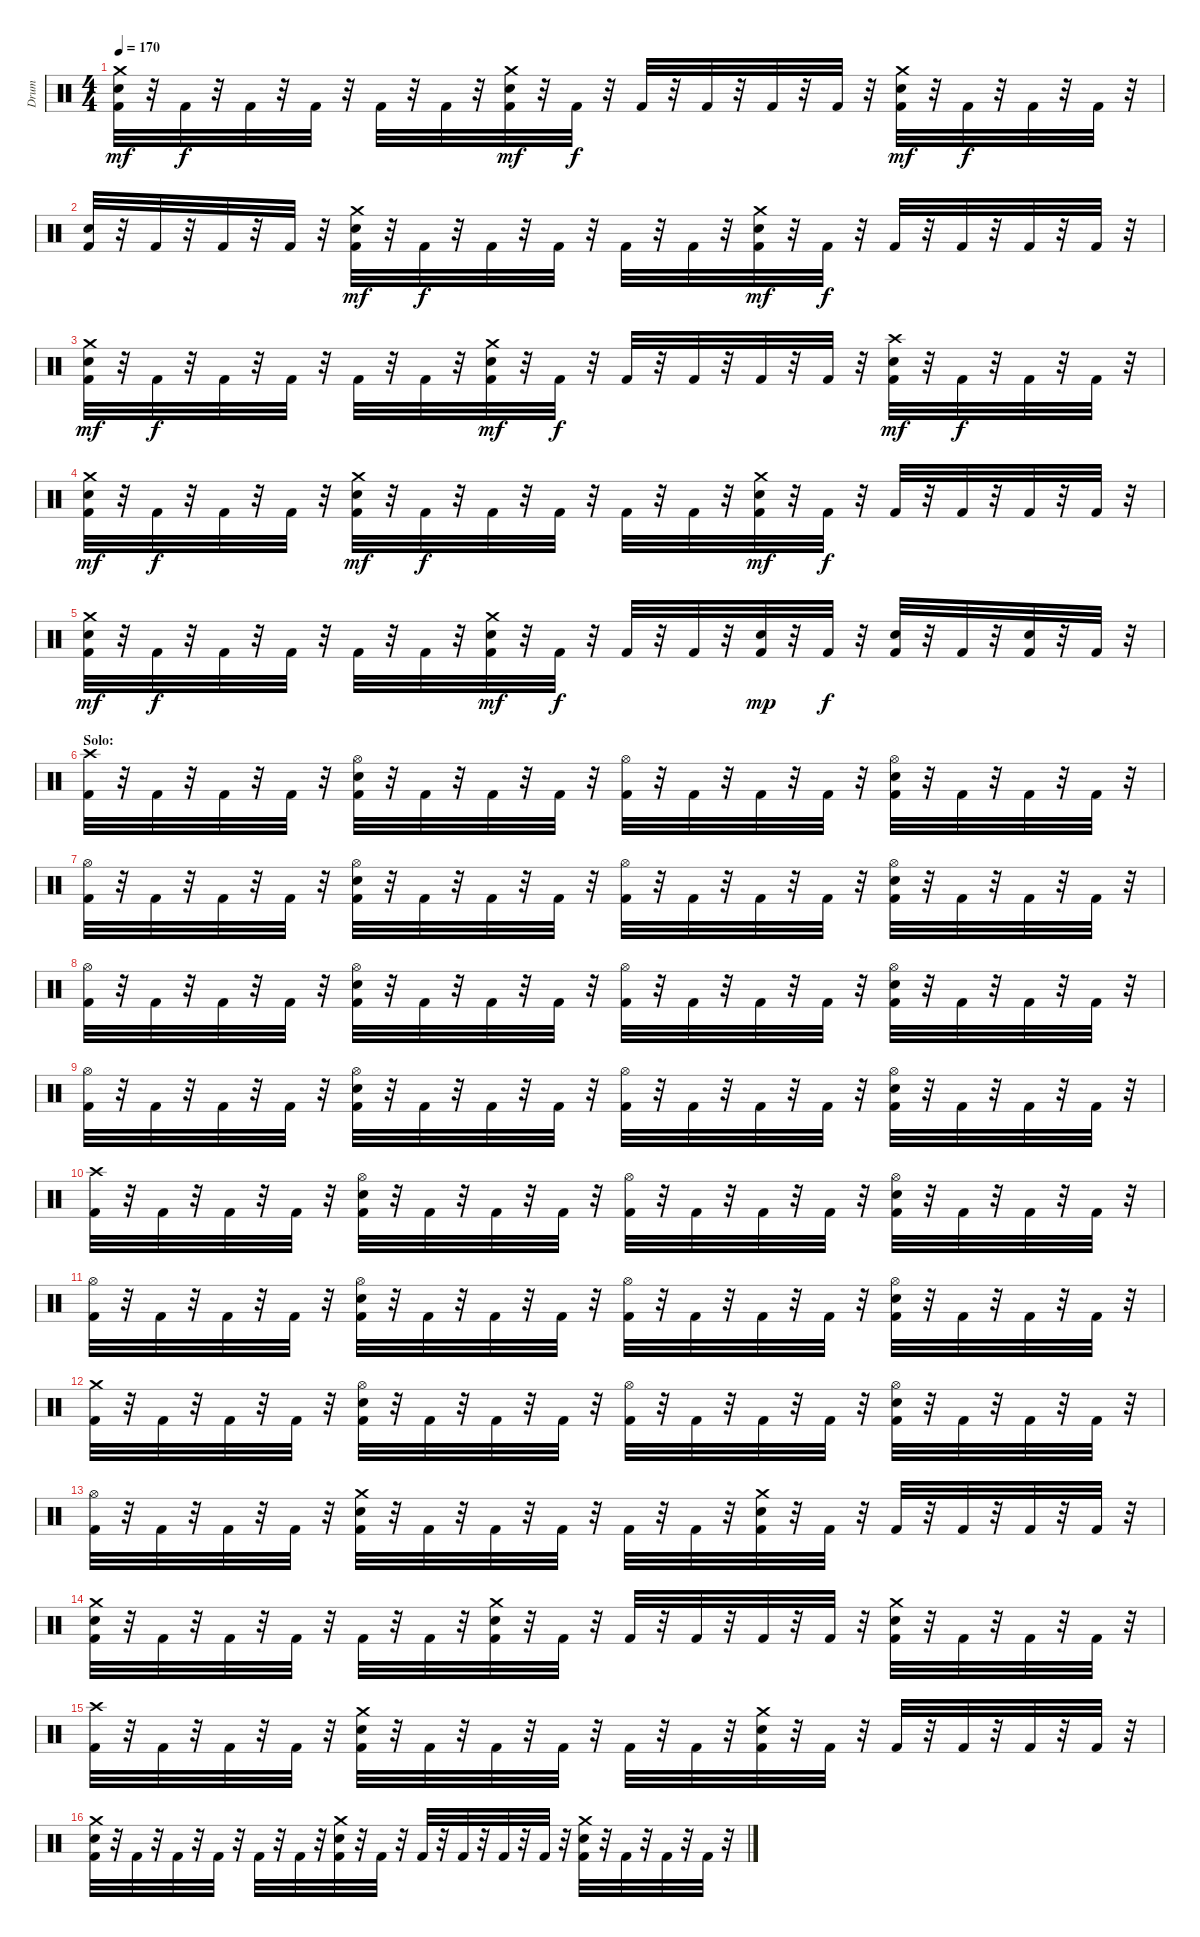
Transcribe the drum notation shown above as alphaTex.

\track ("Drum" "Drum") {instrument percussion}
\staff {score}
\articulation defaults
\ts (4 4)
\tempo 170
\clef neutral
\ks c
("Crash medium (hit)" "Snare (hit) 2" "Kick (hit) 2").32{dy mf} r.32 "Kick (hit) 2".32{dy f} r.32 "Kick (hit) 2".32 r.32 "Kick (hit) 2".32 r.32 "Kick (hit) 2".32 r.32 "Kick (hit) 2".32 r.32 ("Crash medium (hit)" "Snare (hit) 2" "Kick (hit) 2").32{dy mf} r.32 "Kick (hit) 2".32{dy f} r.32 "Kick (hit) 2".32 r.32 "Kick (hit) 2".32 r.32 "Kick (hit) 2".32 r.32 "Kick (hit) 2".32 r.32 ("Crash medium (hit)" "Snare (hit) 2" "Kick (hit) 2").32{dy mf} r.32 "Kick (hit) 2".32{dy f} r.32 "Kick (hit) 2".32 r.32 "Kick (hit) 2".32 r.32 |
("Snare (hit) 2" "Kick (hit) 2").32 r.32 "Kick (hit) 2".32 r.32 "Kick (hit) 2".32 r.32 "Kick (hit) 2".32 r.32 ("Snare (hit) 2" "Crash medium (hit)" "Kick (hit) 2").32{dy mf} r.32 "Kick (hit) 2".32{dy f} r.32 "Kick (hit) 2".32 r.32 "Kick (hit) 2".32 r.32 "Kick (hit) 2".32 r.32 "Kick (hit) 2".32 r.32 ("Crash medium (hit)" "Snare (hit) 2" "Kick (hit) 2").32{dy mf} r.32 "Kick (hit) 2".32{dy f} r.32 "Kick (hit) 2".32 r.32 "Kick (hit) 2".32 r.32 "Kick (hit) 2".32 r.32 "Kick (hit) 2".32 r.32 |
("Snare (hit) 2" "Crash medium (hit)" "Kick (hit) 2").32{dy mf} r.32 "Kick (hit) 2".32{dy f} r.32 "Kick (hit) 2".32 r.32 "Kick (hit) 2".32 r.32 "Kick (hit) 2".32 r.32 "Kick (hit) 2".32 r.32 ("Snare (hit) 2" "Crash medium (hit)" "Kick (hit) 2").32{dy mf} r.32 "Kick (hit) 2".32{dy f} r.32 "Kick (hit) 2".32 r.32 "Kick (hit) 2".32 r.32 "Kick (hit) 2".32 r.32 "Kick (hit) 2".32 r.32 ("Crash high (hit)" "Snare (hit) 2" "Kick (hit) 2").32{dy mf} r.32 "Kick (hit) 2".32{dy f} r.32 "Kick (hit) 2".32 r.32 "Kick (hit) 2".32 r.32 |
("Crash medium (hit)" "Snare (hit) 2" "Kick (hit) 2").32{dy mf} r.32 "Kick (hit) 2".32{dy f} r.32 "Kick (hit) 2".32 r.32 "Kick (hit) 2".32 r.32 ("Snare (hit) 2" "Crash medium (hit)" "Kick (hit) 2").32{dy mf} r.32 "Kick (hit) 2".32{dy f} r.32 "Kick (hit) 2".32 r.32 "Kick (hit) 2".32 r.32 "Kick (hit) 2".32 r.32 "Kick (hit) 2".32 r.32 ("Crash medium (hit)" "Snare (hit) 2" "Kick (hit) 2").32{dy mf} r.32 "Kick (hit) 2".32{dy f} r.32 "Kick (hit) 2".32 r.32 "Kick (hit) 2".32 r.32 "Kick (hit) 2".32 r.32 "Kick (hit) 2".32 r.32 |
("Snare (hit) 2" "Crash medium (hit)" "Kick (hit) 2").32{dy mf} r.32 "Kick (hit) 2".32{dy f} r.32 "Kick (hit) 2".32 r.32 "Kick (hit) 2".32 r.32 "Kick (hit) 2".32 r.32 "Kick (hit) 2".32 r.32 ("Snare (hit) 2" "Crash medium (hit)" "Kick (hit) 2").32{dy mf} r.32 "Kick (hit) 2".32{dy f} r.32 "Kick (hit) 2".32 r.32 "Kick (hit) 2".32 r.32 ("Snare (hit) 2" "Kick (hit) 2").32{dy mp} r.32 "Kick (hit) 2".32{dy f} r.32 ("Snare (hit) 2" "Kick (hit) 2").32 r.32 "Kick (hit) 2".32 r.32 ("Snare (hit) 2" "Kick (hit) 2").32 r.32 "Kick (hit) 2".32 r.32 |
\section ("" "Solo:")
("Crash high (hit)" "Kick (hit) 2").32 r.32 "Kick (hit) 2".32 r.32 "Kick (hit) 2".32 r.32 "Kick (hit) 2".32 r.32 ("Hi-Hat (open)" "Snare (hit) 2" "Kick (hit) 2").32 r.32 "Kick (hit) 2".32 r.32 "Kick (hit) 2".32 r.32 "Kick (hit) 2".32 r.32 ("Hi-Hat (open)" "Kick (hit) 2").32 r.32 "Kick (hit) 2".32 r.32 "Kick (hit) 2".32 r.32 "Kick (hit) 2".32 r.32 ("Hi-Hat (open)" "Snare (hit) 2" "Kick (hit) 2").32 r.32 "Kick (hit) 2".32 r.32 "Kick (hit) 2".32 r.32 "Kick (hit) 2".32 r.32 |
("Hi-Hat (open)" "Kick (hit) 2").32 r.32 "Kick (hit) 2".32 r.32 "Kick (hit) 2".32 r.32 "Kick (hit) 2".32 r.32 ("Snare (hit) 2" "Hi-Hat (open)" "Kick (hit) 2").32 r.32 "Kick (hit) 2".32 r.32 "Kick (hit) 2".32 r.32 "Kick (hit) 2".32 r.32 ("Hi-Hat (open)" "Kick (hit) 2").32 r.32 "Kick (hit) 2".32 r.32 "Kick (hit) 2".32 r.32 "Kick (hit) 2".32 r.32 ("Snare (hit) 2" "Hi-Hat (open)" "Kick (hit) 2").32 r.32 "Kick (hit) 2".32 r.32 "Kick (hit) 2".32 r.32 "Kick (hit) 2".32 r.32 |
("Hi-Hat (open)" "Kick (hit) 2").32 r.32 "Kick (hit) 2".32 r.32 "Kick (hit) 2".32 r.32 "Kick (hit) 2".32 r.32 ("Snare (hit) 2" "Hi-Hat (open)" "Kick (hit) 2").32 r.32 "Kick (hit) 2".32 r.32 "Kick (hit) 2".32 r.32 "Kick (hit) 2".32 r.32 ("Hi-Hat (open)" "Kick (hit) 2").32 r.32 "Kick (hit) 2".32 r.32 "Kick (hit) 2".32 r.32 "Kick (hit) 2".32 r.32 ("Snare (hit) 2" "Hi-Hat (open)" "Kick (hit) 2").32 r.32 "Kick (hit) 2".32 r.32 "Kick (hit) 2".32 r.32 "Kick (hit) 2".32 r.32 |
("Hi-Hat (open)" "Kick (hit) 2").32 r.32 "Kick (hit) 2".32 r.32 "Kick (hit) 2".32 r.32 "Kick (hit) 2".32 r.32 ("Snare (hit) 2" "Hi-Hat (open)" "Kick (hit) 2").32 r.32 "Kick (hit) 2".32 r.32 "Kick (hit) 2".32 r.32 "Kick (hit) 2".32 r.32 ("Hi-Hat (open)" "Kick (hit) 2").32 r.32 "Kick (hit) 2".32 r.32 "Kick (hit) 2".32 r.32 "Kick (hit) 2".32 r.32 ("Snare (hit) 2" "Hi-Hat (open)" "Kick (hit) 2").32 r.32 "Kick (hit) 2".32 r.32 "Kick (hit) 2".32 r.32 "Kick (hit) 2".32 r.32 |
("Crash high (hit)" "Kick (hit) 2").32 r.32 "Kick (hit) 2".32 r.32 "Kick (hit) 2".32 r.32 "Kick (hit) 2".32 r.32 ("Snare (hit) 2" "Hi-Hat (open)" "Kick (hit) 2").32 r.32 "Kick (hit) 2".32 r.32 "Kick (hit) 2".32 r.32 "Kick (hit) 2".32 r.32 ("Hi-Hat (open)" "Kick (hit) 2").32 r.32 "Kick (hit) 2".32 r.32 "Kick (hit) 2".32 r.32 "Kick (hit) 2".32 r.32 ("Snare (hit) 2" "Hi-Hat (open)" "Kick (hit) 2").32 r.32 "Kick (hit) 2".32 r.32 "Kick (hit) 2".32 r.32 "Kick (hit) 2".32 r.32 |
("Hi-Hat (open)" "Kick (hit) 2").32 r.32 "Kick (hit) 2".32 r.32 "Kick (hit) 2".32 r.32 "Kick (hit) 2".32 r.32 ("Hi-Hat (open)" "Snare (hit) 2" "Kick (hit) 2").32 r.32 "Kick (hit) 2".32 r.32 "Kick (hit) 2".32 r.32 "Kick (hit) 2".32 r.32 ("Hi-Hat (open)" "Kick (hit) 2").32 r.32 "Kick (hit) 2".32 r.32 "Kick (hit) 2".32 r.32 "Kick (hit) 2".32 r.32 ("Hi-Hat (open)" "Snare (hit) 2" "Kick (hit) 2").32 r.32 "Kick (hit) 2".32 r.32 "Kick (hit) 2".32 r.32 "Kick (hit) 2".32 r.32 |
("Crash medium (hit)" "Kick (hit) 2").32 r.32 "Kick (hit) 2".32 r.32 "Kick (hit) 2".32 r.32 "Kick (hit) 2".32 r.32 ("Hi-Hat (open)" "Snare (hit) 2" "Kick (hit) 2").32 r.32 "Kick (hit) 2".32 r.32 "Kick (hit) 2".32 r.32 "Kick (hit) 2".32 r.32 ("Hi-Hat (open)" "Kick (hit) 2").32 r.32 "Kick (hit) 2".32 r.32 "Kick (hit) 2".32 r.32 "Kick (hit) 2".32 r.32 ("Hi-Hat (open)" "Snare (hit) 2" "Kick (hit) 2").32 r.32 "Kick (hit) 2".32 r.32 "Kick (hit) 2".32 r.32 "Kick (hit) 2".32 r.32 |
("Hi-Hat (open)" "Kick (hit) 2").32 r.32 "Kick (hit) 2".32 r.32 "Kick (hit) 2".32 r.32 "Kick (hit) 2".32 r.32 ("Crash medium (hit)" "Snare (hit) 2" "Kick (hit) 2").32 r.32 "Kick (hit) 2".32 r.32 "Kick (hit) 2".32 r.32 "Kick (hit) 2".32 r.32 "Kick (hit) 2".32 r.32 "Kick (hit) 2".32 r.32 ("Crash medium (hit)" "Snare (hit) 2" "Kick (hit) 2").32 r.32 "Kick (hit) 2".32 r.32 "Kick (hit) 2".32 r.32 "Kick (hit) 2".32 r.32 "Kick (hit) 2".32 r.32 "Kick (hit) 2".32 r.32 |
("Crash medium (hit)" "Snare (hit) 2" "Kick (hit) 2").32 r.32 "Kick (hit) 2".32 r.32 "Kick (hit) 2".32 r.32 "Kick (hit) 2".32 r.32 "Kick (hit) 2".32 r.32 "Kick (hit) 2".32 r.32 ("Crash medium (hit)" "Snare (hit) 2" "Kick (hit) 2").32 r.32 "Kick (hit) 2".32 r.32 "Kick (hit) 2".32 r.32 "Kick (hit) 2".32 r.32 "Kick (hit) 2".32 r.32 "Kick (hit) 2".32 r.32 ("Crash medium (hit)" "Snare (hit) 2" "Kick (hit) 2").32 r.32 "Kick (hit) 2".32 r.32 "Kick (hit) 2".32 r.32 "Kick (hit) 2".32 r.32 |
("Crash high (hit)" "Kick (hit) 2").32 r.32 "Kick (hit) 2".32 r.32 "Kick (hit) 2".32 r.32 "Kick (hit) 2".32 r.32 ("Crash medium (hit)" "Snare (hit) 2" "Kick (hit) 2").32 r.32 "Kick (hit) 2".32 r.32 "Kick (hit) 2".32 r.32 "Kick (hit) 2".32 r.32 "Kick (hit) 2".32 r.32 "Kick (hit) 2".32 r.32 ("Crash medium (hit)" "Snare (hit) 2" "Kick (hit) 2").32 r.32 "Kick (hit) 2".32 r.32 "Kick (hit) 2".32 r.32 "Kick (hit) 2".32 r.32 "Kick (hit) 2".32 r.32 "Kick (hit) 2".32 r.32 |
("Crash medium (hit)" "Snare (hit) 2" "Kick (hit) 2").32 r.32 "Kick (hit) 2".32 r.32 "Kick (hit) 2".32 r.32 "Kick (hit) 2".32 r.32 "Kick (hit) 2".32 r.32 "Kick (hit) 2".32 r.32 ("Crash medium (hit)" "Snare (hit) 2" "Kick (hit) 2").32 r.32 "Kick (hit) 2".32 r.32 "Kick (hit) 2".32 r.32 "Kick (hit) 2".32 r.32 "Kick (hit) 2".32 r.32 "Kick (hit) 2".32 r.32 ("Crash medium (hit)" "Snare (hit) 2" "Kick (hit) 2").32 r.32 "Kick (hit) 2".32 r.32 "Kick (hit) 2".32 r.32 "Kick (hit) 2".32 r.32
